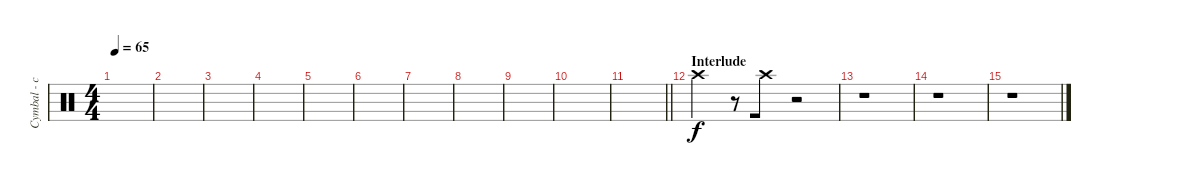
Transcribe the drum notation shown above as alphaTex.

\track ("Cymbal - crash - center" "Cymbal - c") {instrument percussion}
\staff {score}
\articulation defaults
\ts (4 4)
\tempo 65
\clef neutral
\ks c
|
|
|
|
|
|
|
|
|
|
\barLineRight lightlight
|
\section ("" "Interlude")
"Crash high (hit)".4{beam merge} r.8 "Crash high (hit)".8 r.2 |
r.1 |
r.1 |
r.1
